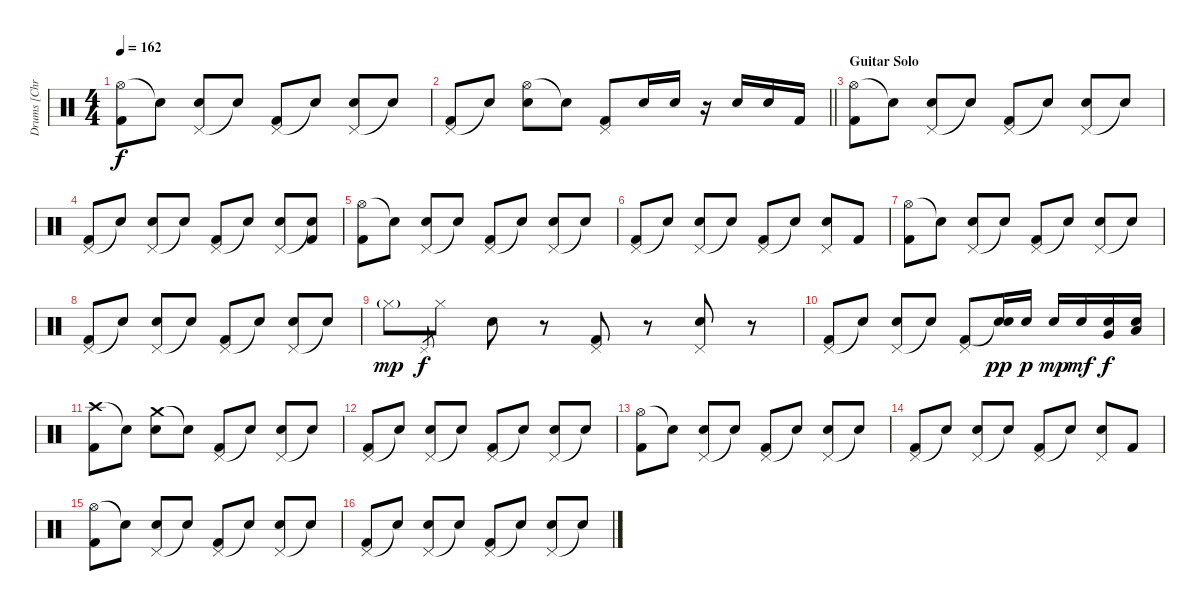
\track ("Drums [Chris Maitland]" "Drums [Chr") {instrument percussion}
\staff {score}
\articulation defaults
\ts (4 4)
\tempo 162
\clef neutral
\ks c
("Hi-Hat (open)" "Kick (hit) 2").8{dy f} "Snare (hit)"{t}.8 ("Pedal Hi-Hat (hit)" "Electric Snare (hit)").8 "Snare (hit)"{t}.8 ("Pedal Hi-Hat (hit)" "Kick (hit) 2").8 "Snare (hit)"{t}.8 ("Pedal Hi-Hat (hit)" "Electric Snare (hit)").8 "Snare (hit)"{t}.8 |
\barLineRight lightlight
("Pedal Hi-Hat (hit)" "Kick (hit) 2").8 "Snare (hit)"{t}.8 ("Hi-Hat (open)" "Electric Snare (hit)").8 "Snare (hit)"{t}.8 ("Pedal Hi-Hat (hit)" "Kick (hit) 2").8 "Electric Snare (hit)".16 "Electric Snare (hit)".16 r.16 "Electric Snare (hit)".16 "Electric Snare (hit)".16 "Kick (hit) 2".16 |
\section ("" "Guitar Solo")
("Hi-Hat (open)" "Kick (hit) 2").8 "Snare (hit)"{t}.8 ("Pedal Hi-Hat (hit)" "Electric Snare (hit)").8 "Snare (hit)"{t}.8 ("Pedal Hi-Hat (hit)" "Kick (hit) 2").8 "Snare (hit)"{t}.8 ("Pedal Hi-Hat (hit)" "Electric Snare (hit)").8 "Snare (hit)"{t}.8 |
("Pedal Hi-Hat (hit)" "Kick (hit) 2").8 "Snare (hit)"{t}.8 ("Pedal Hi-Hat (hit)" "Electric Snare (hit)").8 "Snare (hit)"{t}.8 ("Pedal Hi-Hat (hit)" "Kick (hit) 2").8 "Snare (hit)"{t}.8 ("Pedal Hi-Hat (hit)" "Electric Snare (hit)").8 ("Snare (hit)"{t} "Kick (hit) 2").8 |
("Hi-Hat (open)" "Kick (hit) 2").8 "Snare (hit)"{t}.8 ("Pedal Hi-Hat (hit)" "Electric Snare (hit)").8 "Snare (hit)"{t}.8 ("Pedal Hi-Hat (hit)" "Kick (hit) 2").8 "Snare (hit)"{t}.8 ("Pedal Hi-Hat (hit)" "Electric Snare (hit)").8 "Snare (hit)"{t}.8 |
("Pedal Hi-Hat (hit)" "Kick (hit) 2").8 "Snare (hit)"{t}.8 ("Pedal Hi-Hat (hit)" "Electric Snare (hit)").8 "Snare (hit)"{t}.8 ("Pedal Hi-Hat (hit)" "Kick (hit) 2").8 "Snare (hit)"{t}.8 ("Pedal Hi-Hat (hit)" "Electric Snare (hit)").8 "Kick (hit) 2".8 |
("Hi-Hat (open)" "Kick (hit) 2").8 "Snare (hit)"{t}.8 ("Pedal Hi-Hat (hit)" "Electric Snare (hit)").8 "Snare (hit)"{t}.8 ("Pedal Hi-Hat (hit)" "Kick (hit) 2").8 "Snare (hit)"{t}.8 ("Pedal Hi-Hat (hit)" "Electric Snare (hit)").8 "Snare (hit)"{t}.8 |
("Pedal Hi-Hat (hit)" "Kick (hit) 2").8 "Snare (hit)"{t}.8 ("Pedal Hi-Hat (hit)" "Electric Snare (hit)").8 "Snare (hit)"{t}.8 ("Pedal Hi-Hat (hit)" "Kick (hit) 2").8 "Snare (hit)"{t}.8 ("Pedal Hi-Hat (hit)" "Electric Snare (hit)").8 "Snare (hit)"{t}.8 |
"Hi-Hat (closed)"{g}.8{dy mp} "Pedal Hi-Hat (hit)".8{gr dy f} "Hi-Hat (closed)".8 "Electric Snare (hit)".8 r.8 ("Pedal Hi-Hat (hit)" "Kick (hit) 2").8 r.8 ("Pedal Hi-Hat (hit)" "Electric Snare (hit)").8 r.8 |
("Pedal Hi-Hat (hit)" "Kick (hit) 2").8 "Snare (hit)"{t}.8 ("Pedal Hi-Hat (hit)" "Electric Snare (hit)").8 "Snare (hit)"{t}.8 ("Pedal Hi-Hat (hit)" "Kick (hit) 2").8 ("Electric Snare (hit)" "Snare (hit)"{t}).16{dy pp} "Electric Snare (hit)".16{dy p} "Electric Snare (hit)".16{dy mp} "Electric Snare (hit)".16{dy mf} ("Electric Snare (hit)" "Very Low Tom (hit)").16{dy f} ("Electric Snare (hit)" "Low Floor Tom (hit)").16 |
("Crash high (hit)" "Kick (hit) 2").8 "Snare (hit)"{t}.8 ("Crash medium (hit)" "Electric Snare (hit)").8 "Snare (hit)"{t}.8 ("Pedal Hi-Hat (hit)" "Kick (hit) 2").8 "Snare (hit)"{t}.8 ("Pedal Hi-Hat (hit)" "Electric Snare (hit)").8 "Snare (hit)"{t}.8 |
("Pedal Hi-Hat (hit)" "Kick (hit) 2").8 "Snare (hit)"{t}.8 ("Pedal Hi-Hat (hit)" "Electric Snare (hit)").8 "Snare (hit)"{t}.8 ("Pedal Hi-Hat (hit)" "Kick (hit) 2").8 "Snare (hit)"{t}.8 ("Pedal Hi-Hat (hit)" "Electric Snare (hit)").8 "Snare (hit)"{t}.8 |
("Hi-Hat (open)" "Kick (hit) 2").8 "Snare (hit)"{t}.8 ("Pedal Hi-Hat (hit)" "Electric Snare (hit)").8 "Snare (hit)"{t}.8 ("Pedal Hi-Hat (hit)" "Kick (hit) 2").8 "Snare (hit)"{t}.8 ("Pedal Hi-Hat (hit)" "Electric Snare (hit)").8 "Snare (hit)"{t}.8 |
("Pedal Hi-Hat (hit)" "Kick (hit) 2").8 "Snare (hit)"{t}.8 ("Pedal Hi-Hat (hit)" "Electric Snare (hit)").8 "Snare (hit)"{t}.8 ("Pedal Hi-Hat (hit)" "Kick (hit) 2").8 "Snare (hit)"{t}.8 ("Pedal Hi-Hat (hit)" "Electric Snare (hit)").8 "Kick (hit) 2".8 |
("Hi-Hat (open)" "Kick (hit) 2").8 "Snare (hit)"{t}.8 ("Pedal Hi-Hat (hit)" "Electric Snare (hit)").8 "Snare (hit)"{t}.8 ("Pedal Hi-Hat (hit)" "Kick (hit) 2").8 "Snare (hit)"{t}.8 ("Pedal Hi-Hat (hit)" "Electric Snare (hit)").8 "Snare (hit)"{t}.8 |
("Pedal Hi-Hat (hit)" "Kick (hit) 2").8 "Snare (hit)"{t}.8 ("Pedal Hi-Hat (hit)" "Electric Snare (hit)").8 "Snare (hit)"{t}.8 ("Pedal Hi-Hat (hit)" "Kick (hit) 2").8 "Snare (hit)"{t}.8 ("Pedal Hi-Hat (hit)" "Electric Snare (hit)").8 "Snare (hit)"{t}.8
